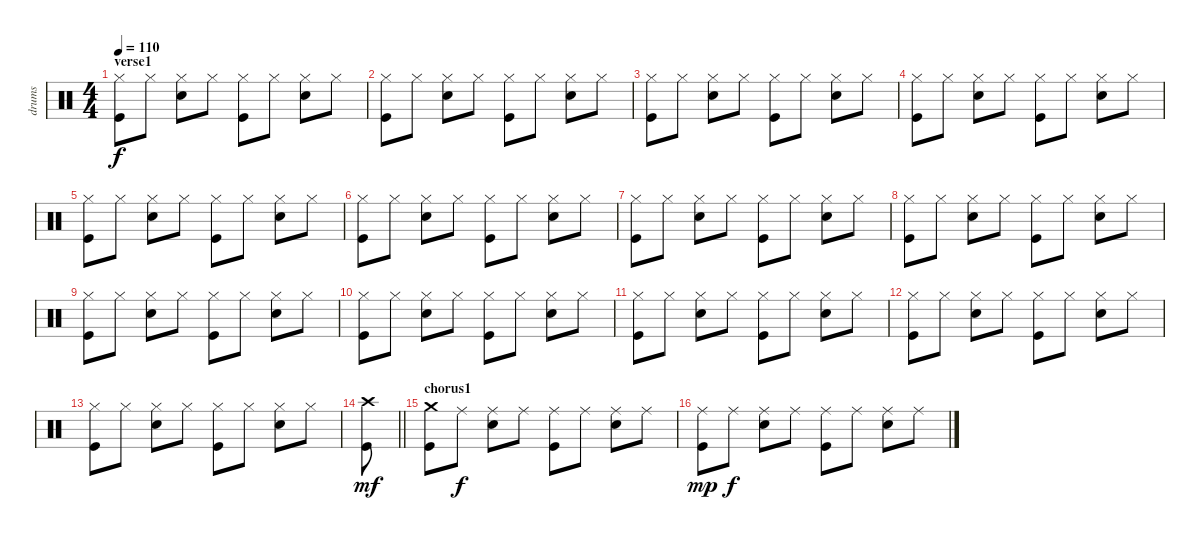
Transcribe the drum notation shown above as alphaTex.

\track ("drums" "drums") {instrument percussion}
\staff {score}
\articulation defaults
\ts (4 4)
\section ("" "verse1")
\tempo 110
\clef neutral
\ks c
("Hi-Hat (closed)" "Kick (hit)").8{dy f} "Hi-Hat (closed)".8 ("Hi-Hat (closed)" "Snare (hit) 2").8 "Hi-Hat (closed)".8 ("Hi-Hat (closed)" "Kick (hit)").8 "Hi-Hat (closed)".8 ("Hi-Hat (closed)" "Snare (hit) 2").8 "Hi-Hat (closed)".8 |
("Hi-Hat (closed)" "Kick (hit)").8 "Hi-Hat (closed)".8 ("Hi-Hat (closed)" "Snare (hit) 2").8 "Hi-Hat (closed)".8 ("Hi-Hat (closed)" "Kick (hit)").8 "Hi-Hat (closed)".8 ("Hi-Hat (closed)" "Snare (hit) 2").8 "Hi-Hat (closed)".8 |
("Hi-Hat (closed)" "Kick (hit)").8 "Hi-Hat (closed)".8 ("Hi-Hat (closed)" "Snare (hit) 2").8 "Hi-Hat (closed)".8 ("Hi-Hat (closed)" "Kick (hit)").8 "Hi-Hat (closed)".8 ("Hi-Hat (closed)" "Snare (hit) 2").8 "Hi-Hat (closed)".8 |
("Hi-Hat (closed)" "Kick (hit)").8 "Hi-Hat (closed)".8 ("Hi-Hat (closed)" "Snare (hit) 2").8 "Hi-Hat (closed)".8 ("Hi-Hat (closed)" "Kick (hit)").8 "Hi-Hat (closed)".8 ("Hi-Hat (closed)" "Snare (hit) 2").8 "Hi-Hat (closed)".8 |
("Hi-Hat (closed)" "Kick (hit)").8 "Hi-Hat (closed)".8 ("Hi-Hat (closed)" "Snare (hit) 2").8 "Hi-Hat (closed)".8 ("Hi-Hat (closed)" "Kick (hit)").8 "Hi-Hat (closed)".8 ("Hi-Hat (closed)" "Snare (hit) 2").8 "Hi-Hat (closed)".8 |
("Hi-Hat (closed)" "Kick (hit)").8 "Hi-Hat (closed)".8 ("Hi-Hat (closed)" "Snare (hit) 2").8 "Hi-Hat (closed)".8 ("Hi-Hat (closed)" "Kick (hit)").8 "Hi-Hat (closed)".8 ("Hi-Hat (closed)" "Snare (hit) 2").8 "Hi-Hat (closed)".8 |
("Hi-Hat (closed)" "Kick (hit)").8 "Hi-Hat (closed)".8 ("Hi-Hat (closed)" "Snare (hit) 2").8 "Hi-Hat (closed)".8 ("Hi-Hat (closed)" "Kick (hit)").8 "Hi-Hat (closed)".8 ("Hi-Hat (closed)" "Snare (hit) 2").8 "Hi-Hat (closed)".8 |
("Hi-Hat (closed)" "Kick (hit)").8 "Hi-Hat (closed)".8 ("Hi-Hat (closed)" "Snare (hit) 2").8 "Hi-Hat (closed)".8 ("Hi-Hat (closed)" "Kick (hit)").8 "Hi-Hat (closed)".8 ("Hi-Hat (closed)" "Snare (hit) 2").8 "Hi-Hat (closed)".8 |
("Hi-Hat (closed)" "Kick (hit)").8 "Hi-Hat (closed)".8 ("Hi-Hat (closed)" "Snare (hit) 2").8 "Hi-Hat (closed)".8 ("Hi-Hat (closed)" "Kick (hit)").8 "Hi-Hat (closed)".8 ("Hi-Hat (closed)" "Snare (hit) 2").8 "Hi-Hat (closed)".8 |
("Hi-Hat (closed)" "Kick (hit)").8 "Hi-Hat (closed)".8 ("Hi-Hat (closed)" "Snare (hit) 2").8 "Hi-Hat (closed)".8 ("Hi-Hat (closed)" "Kick (hit)").8 "Hi-Hat (closed)".8 ("Hi-Hat (closed)" "Snare (hit) 2").8 "Hi-Hat (closed)".8 |
("Hi-Hat (closed)" "Kick (hit)").8 "Hi-Hat (closed)".8 ("Hi-Hat (closed)" "Snare (hit) 2").8 "Hi-Hat (closed)".8 ("Hi-Hat (closed)" "Kick (hit)").8 "Hi-Hat (closed)".8 ("Hi-Hat (closed)" "Snare (hit) 2").8 "Hi-Hat (closed)".8 |
("Hi-Hat (closed)" "Kick (hit)").8 "Hi-Hat (closed)".8 ("Hi-Hat (closed)" "Snare (hit) 2").8 "Hi-Hat (closed)".8 ("Hi-Hat (closed)" "Kick (hit)").8 "Hi-Hat (closed)".8 ("Hi-Hat (closed)" "Snare (hit) 2").8 "Hi-Hat (closed)".8 |
("Hi-Hat (closed)" "Kick (hit)").8 "Hi-Hat (closed)".8 ("Hi-Hat (closed)" "Snare (hit) 2").8 "Hi-Hat (closed)".8 ("Hi-Hat (closed)" "Kick (hit)").8 "Hi-Hat (closed)".8 ("Hi-Hat (closed)" "Snare (hit) 2").8 "Hi-Hat (closed)".8 |
\barLineRight lightlight
("Crash high (hit)" "Kick (hit)").8{dy mf} |
\section ("" "chorus1")
("Crash medium (hit)" "Kick (hit)").8 "Ride (middle)".8{dy f} ("Ride (middle)" "Snare (hit) 2").8 "Ride (middle)".8 ("Ride (middle)" "Kick (hit)").8 "Ride (middle)".8 ("Ride (middle)" "Snare (hit) 2").8 "Ride (middle)".8 |
("Ride (middle)" "Kick (hit)").8{dy mp} "Ride (middle)".8{dy f} ("Ride (middle)" "Snare (hit) 2").8 "Ride (middle)".8 ("Ride (middle)" "Kick (hit)").8 "Ride (middle)".8 ("Ride (middle)" "Snare (hit) 2").8 "Ride (middle)".8
